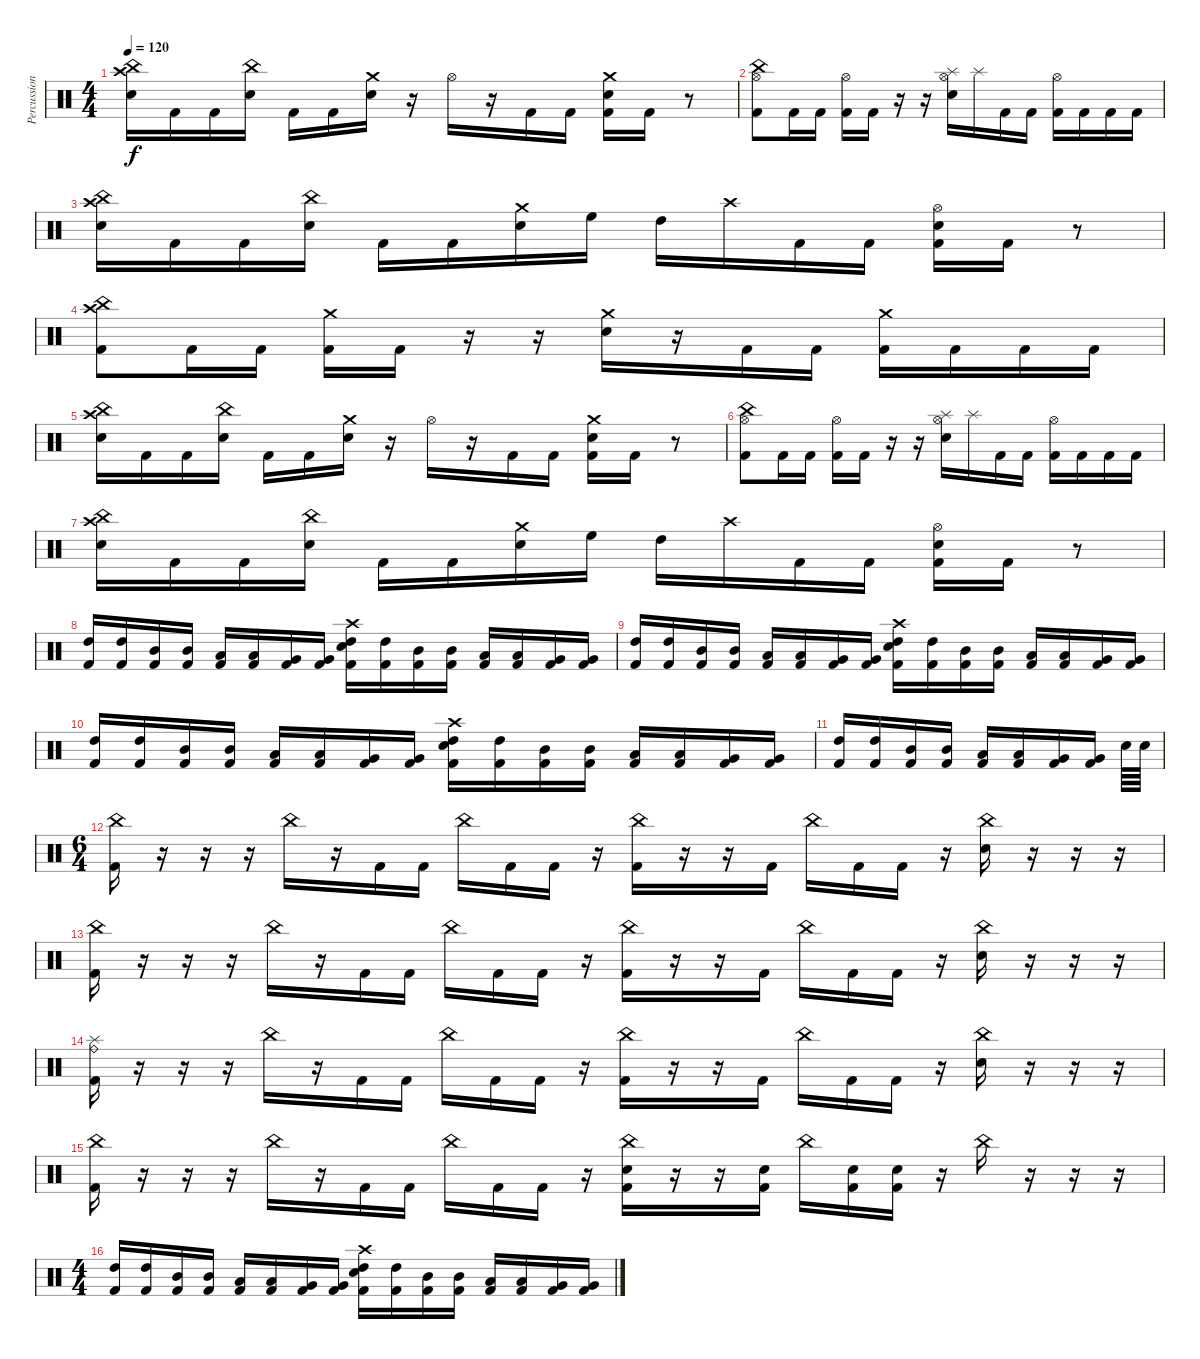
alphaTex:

\track ("Percussion" "Percussion") {instrument percussion}
\staff {score}
\articulation defaults
\ts (4 4)
\tempo 120
\clef neutral
\ks c
("China (hit)" "Crash high (hit)" "Snare (hit) 2").16{dy f} "Kick (hit) 2".16 "Kick (hit) 2".16 ("China (hit)" "Snare (hit) 2").16 "Kick (hit) 2".16 "Kick (hit) 2".16 ("Crash medium (hit)" "Snare (hit) 2").16 r.16 "Hi-Hat (open)".16 r.16 "Kick (hit) 2".16 "Kick (hit) 2".16 ("Crash medium (hit)" "Snare (hit) 2" "Kick (hit) 2").16 "Kick (hit) 2".16 r.8 |
("Hi-Hat (open)" "China (hit)" "Kick (hit) 2").8 "Kick (hit) 2".16 "Kick (hit) 2".16 ("Hi-Hat (open)" "Kick (hit) 2").16 "Kick (hit) 2".16 r.16 r.16 ("Hi-Hat (open)" "Splash (hit)" "Snare (hit) 2").16 "Splash (hit)".16 "Kick (hit) 2".16 "Kick (hit) 2".16 ("Hi-Hat (open)" "Kick (hit) 2").16 "Kick (hit) 2".16 "Kick (hit) 2".16 "Kick (hit) 2".16 |
("China (hit)" "Crash high (hit)" "Snare (hit) 2").16 "Kick (hit) 2".16 "Kick (hit) 2".16 ("China (hit)" "Snare (hit) 2").16 "Kick (hit) 2".16 "Kick (hit) 2".16 ("Crash medium (hit)" "Snare (hit) 2").16 "High Floor Tom (hit)".16 "High Tom (hit)".16 "Crash high (hit)".16 "Kick (hit) 2".16 "Kick (hit) 2".16 ("Hi-Hat (open)" "Snare (hit) 2" "Kick (hit) 2").16 "Kick (hit) 2".16 r.8 |
("Crash high (hit)" "China (hit)" "Kick (hit) 2").8 "Kick (hit) 2".16 "Kick (hit) 2".16 ("Crash medium (hit)" "Kick (hit) 2").16 "Kick (hit) 2".16 r.16 r.16 ("Crash medium (hit)" "Snare (hit) 2").16 r.16 "Kick (hit) 2".16 "Kick (hit) 2".16 ("Crash medium (hit)" "Kick (hit) 2").16 "Kick (hit) 2".16 "Kick (hit) 2".16 "Kick (hit) 2".16 |
("China (hit)" "Crash high (hit)" "Snare (hit) 2").16 "Kick (hit) 2".16 "Kick (hit) 2".16 ("China (hit)" "Snare (hit) 2").16 "Kick (hit) 2".16 "Kick (hit) 2".16 ("Crash medium (hit)" "Snare (hit) 2").16 r.16 "Hi-Hat (open)".16 r.16 "Kick (hit) 2".16 "Kick (hit) 2".16 ("Crash medium (hit)" "Snare (hit) 2" "Kick (hit) 2").16 "Kick (hit) 2".16 r.8 |
("Hi-Hat (open)" "China (hit)" "Kick (hit) 2").8 "Kick (hit) 2".16 "Kick (hit) 2".16 ("Hi-Hat (open)" "Kick (hit) 2").16 "Kick (hit) 2".16 r.16 r.16 ("Hi-Hat (open)" "Splash (hit)" "Snare (hit) 2").16 "Splash (hit)".16 "Kick (hit) 2".16 "Kick (hit) 2".16 ("Hi-Hat (open)" "Kick (hit) 2").16 "Kick (hit) 2".16 "Kick (hit) 2".16 "Kick (hit) 2".16 |
("China (hit)" "Crash high (hit)" "Snare (hit) 2").16 "Kick (hit) 2".16 "Kick (hit) 2".16 ("China (hit)" "Snare (hit) 2").16 "Kick (hit) 2".16 "Kick (hit) 2".16 ("Crash medium (hit)" "Snare (hit) 2").16 "High Floor Tom (hit)".16 "High Tom (hit)".16 "Crash high (hit)".16 "Kick (hit) 2".16 "Kick (hit) 2".16 ("Hi-Hat (open)" "Snare (hit) 2" "Kick (hit) 2").16 "Kick (hit) 2".16 r.8 |
("High Tom (hit)" "Kick (hit) 2").16 ("High Tom (hit)" "Kick (hit) 2").16 ("Mid Tom (hit)" "Kick (hit) 2").16 ("Mid Tom (hit)" "Kick (hit) 2").16 ("Low Tom (hit)" "Kick (hit) 2").16 ("Low Tom (hit)" "Kick (hit) 2").16 ("Very Low Tom (hit)" "Kick (hit) 2").16 ("Very Low Tom (hit)" "Kick (hit) 2").16 ("Crash high (hit)" "Snare (hit) 2" "High Tom (hit)" "Kick (hit) 2").16 ("High Tom (hit)" "Kick (hit) 2").16 ("Mid Tom (hit)" "Kick (hit) 2").16 ("Mid Tom (hit)" "Kick (hit) 2").16 ("Low Tom (hit)" "Kick (hit) 2").16 ("Low Tom (hit)" "Kick (hit) 2").16 ("Very Low Tom (hit)" "Kick (hit) 2").16 ("Very Low Tom (hit)" "Kick (hit) 2").16 |
("High Tom (hit)" "Kick (hit) 2").16 ("High Tom (hit)" "Kick (hit) 2").16 ("Mid Tom (hit)" "Kick (hit) 2").16 ("Mid Tom (hit)" "Kick (hit) 2").16 ("Low Tom (hit)" "Kick (hit) 2").16 ("Low Tom (hit)" "Kick (hit) 2").16 ("Very Low Tom (hit)" "Kick (hit) 2").16 ("Very Low Tom (hit)" "Kick (hit) 2").16 ("Crash high (hit)" "Snare (hit) 2" "High Tom (hit)" "Kick (hit) 2").16 ("High Tom (hit)" "Kick (hit) 2").16 ("Mid Tom (hit)" "Kick (hit) 2").16 ("Mid Tom (hit)" "Kick (hit) 2").16 ("Low Tom (hit)" "Kick (hit) 2").16 ("Low Tom (hit)" "Kick (hit) 2").16 ("Very Low Tom (hit)" "Kick (hit) 2").16 ("Very Low Tom (hit)" "Kick (hit) 2").16 |
("High Tom (hit)" "Kick (hit) 2").16 ("High Tom (hit)" "Kick (hit) 2").16 ("Mid Tom (hit)" "Kick (hit) 2").16 ("Mid Tom (hit)" "Kick (hit) 2").16 ("Low Tom (hit)" "Kick (hit) 2").16 ("Low Tom (hit)" "Kick (hit) 2").16 ("Very Low Tom (hit)" "Kick (hit) 2").16 ("Very Low Tom (hit)" "Kick (hit) 2").16 ("Crash high (hit)" "Snare (hit) 2" "High Tom (hit)" "Kick (hit) 2").16 ("High Tom (hit)" "Kick (hit) 2").16 ("Mid Tom (hit)" "Kick (hit) 2").16 ("Mid Tom (hit)" "Kick (hit) 2").16 ("Low Tom (hit)" "Kick (hit) 2").16 ("Low Tom (hit)" "Kick (hit) 2").16 ("Very Low Tom (hit)" "Kick (hit) 2").16 ("Very Low Tom (hit)" "Kick (hit) 2").16 |
("High Tom (hit)" "Kick (hit) 2").16 ("High Tom (hit)" "Kick (hit) 2").16 ("Mid Tom (hit)" "Kick (hit) 2").16 ("Mid Tom (hit)" "Kick (hit) 2").16 ("Low Tom (hit)" "Kick (hit) 2").16 ("Low Tom (hit)" "Kick (hit) 2").16 ("Very Low Tom (hit)" "Kick (hit) 2").16 ("Very Low Tom (hit)" "Kick (hit) 2").16 "Snare (hit) 2".64 "Snare (hit) 2".64 |
\ts (6 4)
("China (hit)" "Kick (hit) 2").16 r.16 r.16 r.16 "China (hit)".16 r.16 "Kick (hit) 2".16 "Kick (hit) 2".16 "China (hit)".16 "Kick (hit) 2".16 "Kick (hit) 2".16 r.16 ("China (hit)" "Kick (hit) 2").16 r.16 r.16 "Kick (hit) 2".16 "China (hit)".16 "Kick (hit) 2".16 "Kick (hit) 2".16 r.16 ("China (hit)" "Snare (hit) 2").16 r.16 r.16 r.16 |
("China (hit)" "Kick (hit) 2").16 r.16 r.16 r.16 "China (hit)".16 r.16 "Kick (hit) 2".16 "Kick (hit) 2".16 "China (hit)".16 "Kick (hit) 2".16 "Kick (hit) 2".16 r.16 ("China (hit)" "Kick (hit) 2").16 r.16 r.16 "Kick (hit) 2".16 "China (hit)".16 "Kick (hit) 2".16 "Kick (hit) 2".16 r.16 ("China (hit)" "Snare (hit) 2").16 r.16 r.16 r.16 |
("Ride (bell)" "Splash (hit)" "Kick (hit) 2").16 r.16 r.16 r.16 "China (hit)".16 r.16 "Kick (hit) 2".16 "Kick (hit) 2".16 "China (hit)".16 "Kick (hit) 2".16 "Kick (hit) 2".16 r.16 ("China (hit)" "Kick (hit) 2").16 r.16 r.16 "Kick (hit) 2".16 "China (hit)".16 "Kick (hit) 2".16 "Kick (hit) 2".16 r.16 ("China (hit)" "Snare (hit) 2").16 r.16 r.16 r.16 |
("China (hit)" "Kick (hit) 2").16 r.16 r.16 r.16 "China (hit)".16 r.16 "Kick (hit) 2".16 "Kick (hit) 2".16 "China (hit)".16 "Kick (hit) 2".16 "Kick (hit) 2".16 r.16 ("China (hit)" "Snare (hit) 2" "Kick (hit) 2").16 r.16 r.16 ("Snare (hit) 2" "Kick (hit) 2").16 "China (hit)".16 ("Snare (hit) 2" "Kick (hit) 2").16 ("Snare (hit) 2" "Kick (hit) 2").16 r.16 "China (hit)".16 r.16 r.16 r.16 |
\ts (4 4)
("High Tom (hit)" "Kick (hit) 2").16 ("High Tom (hit)" "Kick (hit) 2").16 ("Mid Tom (hit)" "Kick (hit) 2").16 ("Mid Tom (hit)" "Kick (hit) 2").16 ("Low Tom (hit)" "Kick (hit) 2").16 ("Low Tom (hit)" "Kick (hit) 2").16 ("Very Low Tom (hit)" "Kick (hit) 2").16 ("Very Low Tom (hit)" "Kick (hit) 2").16 ("Crash high (hit)" "Snare (hit) 2" "High Tom (hit)" "Kick (hit) 2").16 ("High Tom (hit)" "Kick (hit) 2").16 ("Mid Tom (hit)" "Kick (hit) 2").16 ("Mid Tom (hit)" "Kick (hit) 2").16 ("Low Tom (hit)" "Kick (hit) 2").16 ("Low Tom (hit)" "Kick (hit) 2").16 ("Very Low Tom (hit)" "Kick (hit) 2").16 ("Very Low Tom (hit)" "Kick (hit) 2").16
